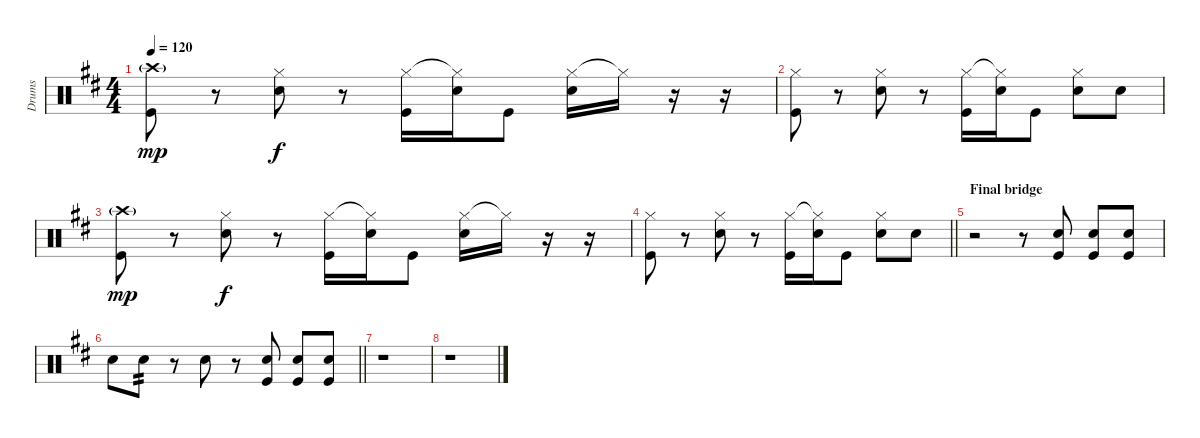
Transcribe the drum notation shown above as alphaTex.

\track ("Drums" "Drums") {instrument percussion}
\staff {score}
\articulation defaults
\ts (4 4)
\tempo 120
\clef neutral
\ks d
("Crash high (hit)"{g} "Kick (hit)").8{dy mp} r.8 ("Hi-Hat (closed)" "Snare (hit) 2").8{dy f} r.8 ("Hi-Hat (closed)" "Kick (hit)").16 ("Hi-Hat (closed)"{t} "Snare (hit) 2").16 "Kick (hit)".8 ("Hi-Hat (closed)" "Snare (hit) 2").16 "Hi-Hat (closed)"{t}.16 r.16 r.16 |
("Hi-Hat (closed)" "Kick (hit)").8 r.8 ("Hi-Hat (closed)" "Snare (hit) 2").8 r.8 ("Hi-Hat (closed)" "Kick (hit)").16 ("Hi-Hat (closed)"{t} "Snare (hit) 2").16 "Kick (hit)".8 ("Hi-Hat (closed)" "Snare (hit) 2").8 "Snare (hit) 2".8 |
("Crash high (hit)"{g} "Kick (hit)").8{dy mp} r.8 ("Hi-Hat (closed)" "Snare (hit) 2").8{dy f} r.8 ("Hi-Hat (closed)" "Kick (hit)").16 ("Hi-Hat (closed)"{t} "Snare (hit) 2").16 "Kick (hit)".8 ("Hi-Hat (closed)" "Snare (hit) 2").16 "Hi-Hat (closed)"{t}.16 r.16 r.16 |
\barLineRight lightlight
("Hi-Hat (closed)" "Kick (hit)").8 r.8 ("Hi-Hat (closed)" "Snare (hit) 2").8 r.8 ("Hi-Hat (closed)" "Kick (hit)").16 ("Hi-Hat (closed)"{t} "Snare (hit) 2").16 "Kick (hit)".8 ("Hi-Hat (closed)" "Snare (hit) 2").8 "Snare (hit) 2".8 |
\section ("" "Final bridge")
r.2 r.8 ("Snare (hit) 2" "Kick (hit)").8 ("Snare (hit) 2" "Kick (hit)").8 ("Snare (hit) 2" "Kick (hit)").8 |
\barLineRight lightlight "Electric Snare (hit)".8 "Snare (hit) 2".8{tp 2}
r.8 "Electric Snare (hit)".8 r.8 ("Snare (hit) 2" "Kick (hit)").8 ("Snare (hit) 2" "Kick (hit)").8 ("Snare (hit) 2" "Kick (hit)").8 |
r.1 |
r.1
